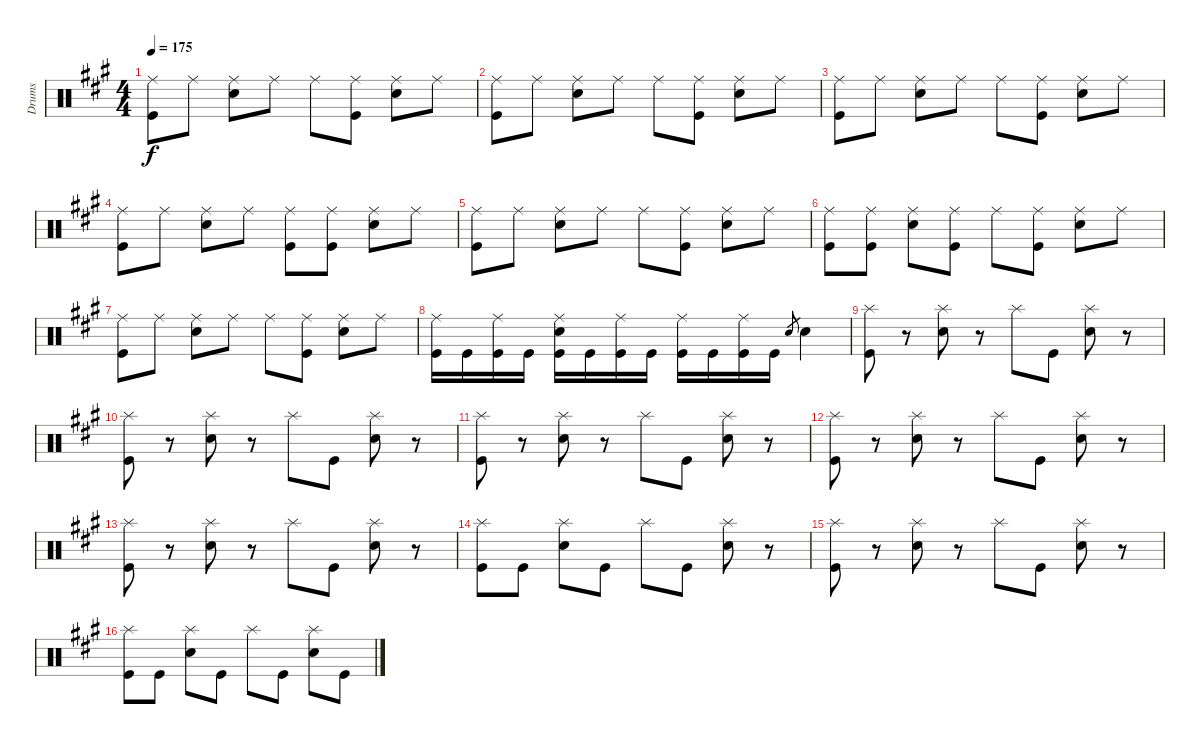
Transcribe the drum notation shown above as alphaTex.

\track ("Drums" "Drums") {instrument percussion}
\staff {score}
\articulation defaults
\ts (4 4)
\tempo 175
\clef neutral
\ks f#minor
("Ride (middle)" "Kick (hit)").8{dy f} "Ride (middle)".8 ("Ride (middle)" "Snare (hit) 2").8 "Ride (middle)".8 "Ride (middle)".8 ("Ride (middle)" "Kick (hit)").8 ("Ride (middle)" "Snare (hit) 2").8 "Ride (middle)".8 |
("Ride (middle)" "Kick (hit)").8 "Ride (middle)".8 ("Ride (middle)" "Snare (hit) 2").8 "Ride (middle)".8 "Ride (middle)".8 ("Ride (middle)" "Kick (hit)").8 ("Ride (middle)" "Snare (hit) 2").8 "Ride (middle)".8 |
("Ride (middle)" "Kick (hit)").8 "Ride (middle)".8 ("Ride (middle)" "Snare (hit) 2").8 "Ride (middle)".8 "Ride (middle)".8 ("Ride (middle)" "Kick (hit)").8 ("Ride (middle)" "Snare (hit) 2").8 "Ride (middle)".8 |
("Ride (middle)" "Kick (hit)").8 "Ride (middle)".8 ("Ride (middle)" "Snare (hit) 2").8 "Ride (middle)".8 ("Ride (middle)" "Kick (hit)").8 ("Ride (middle)" "Kick (hit)").8 ("Ride (middle)" "Snare (hit) 2").8 "Ride (middle)".8 |
("Ride (middle)" "Kick (hit)").8 "Ride (middle)".8 ("Ride (middle)" "Snare (hit) 2").8 "Ride (middle)".8 "Ride (middle)".8 ("Ride (middle)" "Kick (hit)").8 ("Ride (middle)" "Snare (hit) 2").8 "Ride (middle)".8 |
("Ride (middle)" "Kick (hit)").8 ("Ride (middle)" "Kick (hit)").8 ("Ride (middle)" "Snare (hit) 2").8 ("Ride (middle)" "Kick (hit)").8 "Ride (middle)".8 ("Ride (middle)" "Kick (hit)").8 ("Ride (middle)" "Snare (hit) 2").8 "Ride (middle)".8 |
("Ride (middle)" "Kick (hit)").8 "Ride (middle)".8 ("Ride (middle)" "Snare (hit) 2").8 "Ride (middle)".8 "Ride (middle)".8 ("Ride (middle)" "Kick (hit)").8 ("Ride (middle)" "Snare (hit) 2").8 "Ride (middle)".8 |
("Ride (middle)" "Kick (hit)").16 "Kick (hit)".16 ("Ride (middle)" "Kick (hit)").16 "Kick (hit)".16 ("Ride (middle)" "Snare (hit) 2" "Kick (hit)").16 "Kick (hit)".16 ("Ride (middle)" "Kick (hit)").16 "Kick (hit)".16 ("Ride (middle)" "Kick (hit)").16 "Kick (hit)".16 ("Ride (middle)" "Kick (hit)").16 "Kick (hit)".16 "Snare (hit) 2".8{gr} "Snare (hit) 2".4 |
("Splash (hit)" "Kick (hit)").8 r.8 ("Splash (hit)" "Snare (hit) 2").8 r.8 "Splash (hit)".8 "Kick (hit)".8 ("Splash (hit)" "Snare (hit) 2").8 r.8 |
("Splash (hit)" "Kick (hit)").8 r.8 ("Splash (hit)" "Snare (hit) 2").8 r.8 "Splash (hit)".8 "Kick (hit)".8 ("Splash (hit)" "Snare (hit) 2").8 r.8 |
("Splash (hit)" "Kick (hit)").8 r.8 ("Splash (hit)" "Snare (hit) 2").8 r.8 "Splash (hit)".8 "Kick (hit)".8 ("Splash (hit)" "Snare (hit) 2").8 r.8 |
("Splash (hit)" "Kick (hit)").8 r.8 ("Splash (hit)" "Snare (hit) 2").8 r.8 "Splash (hit)".8 "Kick (hit)".8 ("Splash (hit)" "Snare (hit) 2").8 r.8 |
("Splash (hit)" "Kick (hit)").8 r.8 ("Splash (hit)" "Snare (hit) 2").8 r.8 "Splash (hit)".8 "Kick (hit)".8 ("Splash (hit)" "Snare (hit) 2").8 r.8 |
("Splash (hit)" "Kick (hit)").8 "Kick (hit)".8 ("Splash (hit)" "Snare (hit) 2").8 "Kick (hit)".8 "Splash (hit)".8 "Kick (hit)".8 ("Splash (hit)" "Snare (hit) 2").8 r.8 |
("Splash (hit)" "Kick (hit)").8 r.8 ("Splash (hit)" "Snare (hit) 2").8 r.8 "Splash (hit)".8 "Kick (hit)".8 ("Splash (hit)" "Snare (hit) 2").8 r.8 |
("Splash (hit)" "Kick (hit)").8 "Kick (hit)".8 ("Splash (hit)" "Snare (hit) 2").8 "Kick (hit)".8 "Splash (hit)".8 "Kick (hit)".8 ("Splash (hit)" "Snare (hit) 2").8 "Kick (hit)".8
